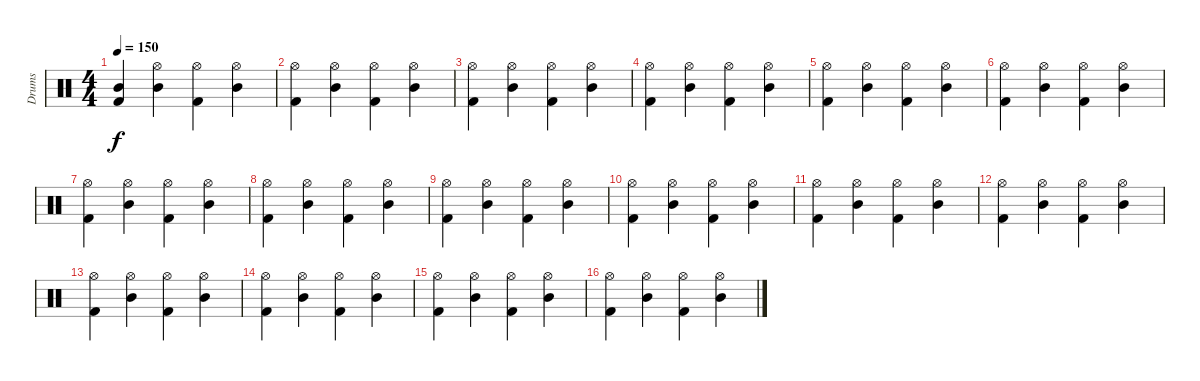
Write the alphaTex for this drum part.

\track ("Drums" "Drums") {instrument percussion}
\staff {score}
\articulation defaults
\ts (4 4)
\tempo 150
\clef neutral
\ks c
("Kick (hit) 2" "Mid Tom (hit)").4{dy f} ("Mid Tom (hit)" "Hi-Hat (open)").4 ("Kick (hit) 2" "Hi-Hat (open)").4 ("Mid Tom (hit)" "Hi-Hat (open)").4 |
("Kick (hit) 2" "Hi-Hat (open)").4 ("Mid Tom (hit)" "Hi-Hat (open)").4 ("Kick (hit) 2" "Hi-Hat (open)").4 ("Mid Tom (hit)" "Hi-Hat (open)").4 |
("Kick (hit) 2" "Hi-Hat (open)").4 ("Mid Tom (hit)" "Hi-Hat (open)").4 ("Kick (hit) 2" "Hi-Hat (open)").4 ("Mid Tom (hit)" "Hi-Hat (open)").4 |
("Kick (hit) 2" "Hi-Hat (open)").4 ("Mid Tom (hit)" "Hi-Hat (open)").4 ("Kick (hit) 2" "Hi-Hat (open)").4 ("Mid Tom (hit)" "Hi-Hat (open)").4 |
("Kick (hit) 2" "Hi-Hat (open)").4 ("Mid Tom (hit)" "Hi-Hat (open)").4 ("Kick (hit) 2" "Hi-Hat (open)").4 ("Mid Tom (hit)" "Hi-Hat (open)").4 |
("Kick (hit) 2" "Hi-Hat (open)").4 ("Mid Tom (hit)" "Hi-Hat (open)").4 ("Kick (hit) 2" "Hi-Hat (open)").4 ("Mid Tom (hit)" "Hi-Hat (open)").4 |
("Kick (hit) 2" "Hi-Hat (open)").4 ("Mid Tom (hit)" "Hi-Hat (open)").4 ("Kick (hit) 2" "Hi-Hat (open)").4 ("Mid Tom (hit)" "Hi-Hat (open)").4 |
("Kick (hit) 2" "Hi-Hat (open)").4 ("Mid Tom (hit)" "Hi-Hat (open)").4 ("Kick (hit) 2" "Hi-Hat (open)").4 ("Mid Tom (hit)" "Hi-Hat (open)").4 |
("Kick (hit) 2" "Hi-Hat (open)").4 ("Mid Tom (hit)" "Hi-Hat (open)").4 ("Kick (hit) 2" "Hi-Hat (open)").4 ("Mid Tom (hit)" "Hi-Hat (open)").4 |
("Kick (hit) 2" "Hi-Hat (open)").4 ("Mid Tom (hit)" "Hi-Hat (open)").4 ("Kick (hit) 2" "Hi-Hat (open)").4 ("Mid Tom (hit)" "Hi-Hat (open)").4 |
("Kick (hit) 2" "Hi-Hat (open)").4 ("Mid Tom (hit)" "Hi-Hat (open)").4 ("Kick (hit) 2" "Hi-Hat (open)").4 ("Mid Tom (hit)" "Hi-Hat (open)").4 |
("Kick (hit) 2" "Hi-Hat (open)").4 ("Mid Tom (hit)" "Hi-Hat (open)").4 ("Kick (hit) 2" "Hi-Hat (open)").4 ("Mid Tom (hit)" "Hi-Hat (open)").4 |
("Kick (hit) 2" "Hi-Hat (open)").4 ("Mid Tom (hit)" "Hi-Hat (open)").4 ("Kick (hit) 2" "Hi-Hat (open)").4 ("Mid Tom (hit)" "Hi-Hat (open)").4 |
("Kick (hit) 2" "Hi-Hat (open)").4 ("Mid Tom (hit)" "Hi-Hat (open)").4 ("Kick (hit) 2" "Hi-Hat (open)").4 ("Mid Tom (hit)" "Hi-Hat (open)").4 |
("Kick (hit) 2" "Hi-Hat (open)").4 ("Mid Tom (hit)" "Hi-Hat (open)").4 ("Kick (hit) 2" "Hi-Hat (open)").4 ("Mid Tom (hit)" "Hi-Hat (open)").4 |
("Kick (hit) 2" "Hi-Hat (open)").4 ("Mid Tom (hit)" "Hi-Hat (open)").4 ("Kick (hit) 2" "Hi-Hat (open)").4 ("Mid Tom (hit)" "Hi-Hat (open)").4
